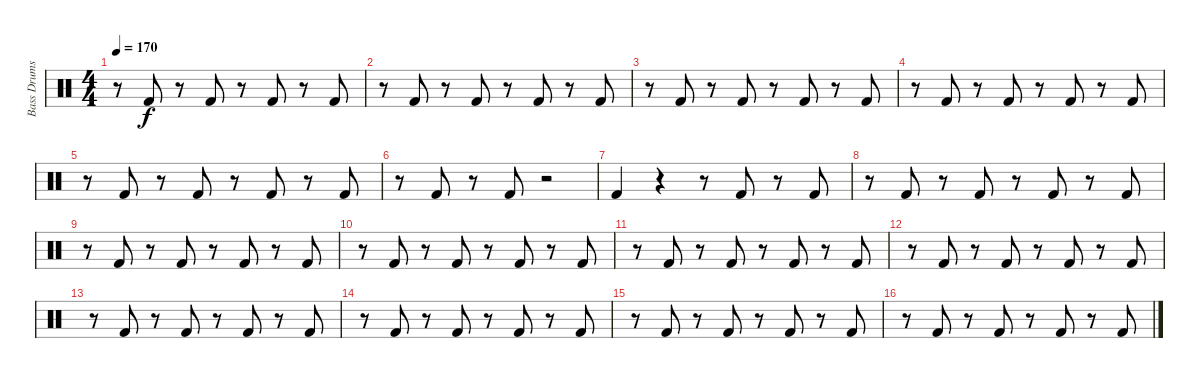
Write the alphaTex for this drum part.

\track ("Bass Drums" "Bass Drums") {instrument percussion}
\staff {score}
\articulation defaults
\ts (4 4)
\tempo 170
\clef neutral
\ks c
r.8{dy f} "Kick (hit) 2".8 r.8 "Kick (hit) 2".8 r.8 "Kick (hit) 2".8 r.8 "Kick (hit) 2".8 |
r.8 "Kick (hit) 2".8 r.8 "Kick (hit) 2".8 r.8 "Kick (hit) 2".8 r.8 "Kick (hit) 2".8 |
r.8 "Kick (hit) 2".8 r.8 "Kick (hit) 2".8 r.8 "Kick (hit) 2".8 r.8 "Kick (hit) 2".8 |
r.8 "Kick (hit) 2".8 r.8 "Kick (hit) 2".8 r.8 "Kick (hit) 2".8 r.8 "Kick (hit) 2".8 |
r.8 "Kick (hit) 2".8 r.8 "Kick (hit) 2".8 r.8 "Kick (hit) 2".8 r.8 "Kick (hit) 2".8 |
r.8 "Kick (hit) 2".8 r.8 "Kick (hit) 2".8 r.2 |
"Kick (hit) 2".4 r.4 r.8 "Kick (hit) 2".8 r.8 "Kick (hit) 2".8 |
r.8 "Kick (hit) 2".8 r.8 "Kick (hit) 2".8 r.8 "Kick (hit) 2".8 r.8 "Kick (hit) 2".8 |
r.8 "Kick (hit) 2".8 r.8 "Kick (hit) 2".8 r.8 "Kick (hit) 2".8 r.8 "Kick (hit) 2".8 |
r.8 "Kick (hit) 2".8 r.8 "Kick (hit) 2".8 r.8 "Kick (hit) 2".8 r.8 "Kick (hit) 2".8 |
r.8 "Kick (hit) 2".8 r.8 "Kick (hit) 2".8 r.8 "Kick (hit) 2".8 r.8 "Kick (hit) 2".8 |
r.8 "Kick (hit) 2".8 r.8 "Kick (hit) 2".8 r.8 "Kick (hit) 2".8 r.8 "Kick (hit) 2".8 |
r.8 "Kick (hit) 2".8 r.8 "Kick (hit) 2".8 r.8 "Kick (hit) 2".8 r.8 "Kick (hit) 2".8 |
r.8 "Kick (hit) 2".8 r.8 "Kick (hit) 2".8 r.8 "Kick (hit) 2".8 r.8 "Kick (hit) 2".8 |
r.8 "Kick (hit) 2".8 r.8 "Kick (hit) 2".8 r.8 "Kick (hit) 2".8 r.8 "Kick (hit) 2".8 |
r.8 "Kick (hit) 2".8 r.8 "Kick (hit) 2".8 r.8 "Kick (hit) 2".8 r.8 "Kick (hit) 2".8
